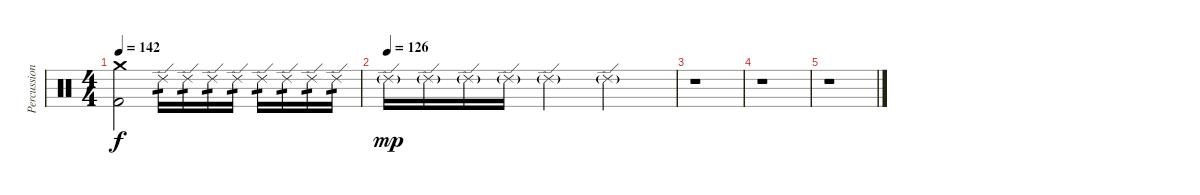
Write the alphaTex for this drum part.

\track ("Percussion" "Percussion") {instrument percussion}
\staff {score}
\articulation defaults
\ts (4 4)
\tempo 142
\clef neutral
\ks c
("Crash medium (hit)" "Kick (hit) 2").2{dy f} "Ride (edge) 2".16{tp 1} "Ride (edge) 2".16{tp 1} "Ride (edge) 2".16{tp 1} "Ride (edge) 2".16{tp 1} "Ride (edge) 2".16{tp 1} "Ride (edge) 2".16{tp 1} "Ride (edge) 2".16{tp 1} "Ride (edge) 2".16{tp 1} |
\tempo (126)
"Ride (edge) 2"{g}.16{dy mp} "Ride (edge) 2"{g}.16 "Ride (edge) 2"{g}.16 "Ride (edge) 2"{g}.16 "Ride (edge) 2"{g}.4 "Ride (edge) 2"{g}.2 |
r.1 |
r.1 |
r.1
